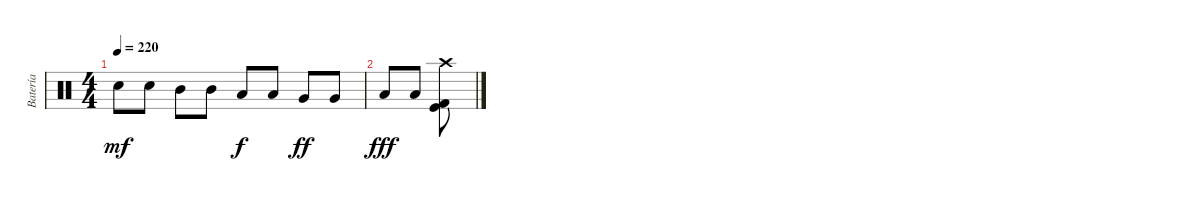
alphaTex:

\track ("Batería" "Batería") {instrument percussion}
\staff {score}
\articulation defaults
\ts (4 4)
\tempo 220
\clef neutral
\ks c "Electric Snare (hit)".8{dy mf} "Electric Snare (hit)".8 "Mid Tom (hit)".8 "Mid Tom (hit)".8 "Low Tom (hit)".8{dy f} "Low Tom (hit)".8 "Very Low Tom (hit)".8{dy ff} "Very Low Tom (hit)".8
|
"Low Floor Tom (hit)".8{dy fff} "Low Floor Tom (hit)".8 ("Crash high (hit)" "Kick (hit) 2" "Kick (hit)").8
